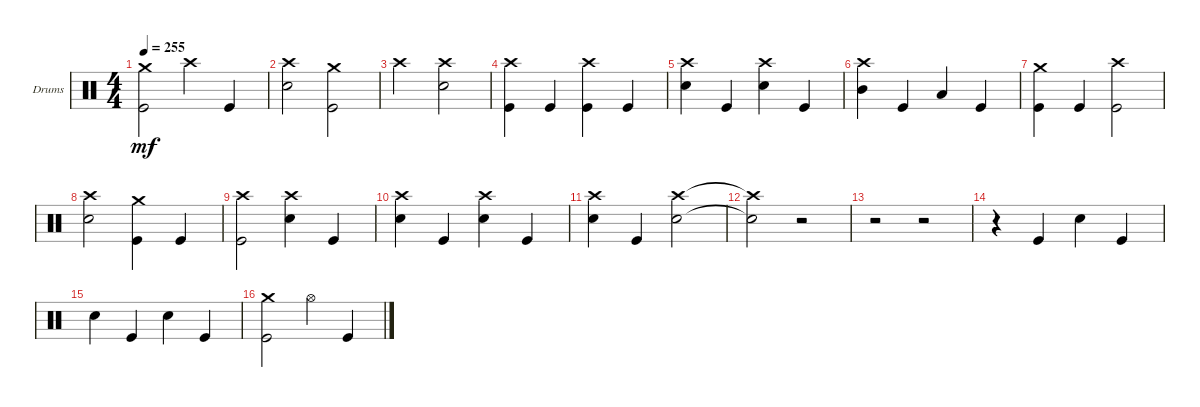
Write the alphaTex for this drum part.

\bracketExtendMode groupsimilarinstruments
\firstSystemTrackNameOrientation horizontal
\otherSystemsTrackNameOrientation horizontal
\track ("Drums" "Drums") {instrument percussion}
\staff {score}
\articulation defaults
\ts (4 4)
\tempo 255
\clef neutral
\ks c
("Kick (hit)" "Crash medium (hit)").2{dy mf} "Crash high (hit)".4 "Kick (hit)".4 |
("Snare (hit) 2" "Crash high (hit)").2 ("Kick (hit)" "Crash medium (hit)").2 |
"Crash high (hit)".2 ("Snare (hit) 2" "Crash high (hit)").2 |
("Kick (hit)" "Crash high (hit)").4 "Kick (hit)".4 ("Kick (hit)" "Crash high (hit)").4 "Kick (hit)".4 |
("Snare (hit) 2" "Crash high (hit)").4 "Kick (hit)".4 ("Snare (hit) 2" "Crash high (hit)").4 "Kick (hit)".4 |
("Mid Tom (hit)" "Crash high (hit)").4 "Kick (hit)".4 "Low Tom (hit)".4 "Kick (hit)".4 |
("Kick (hit)" "Crash medium (hit)").4 "Kick (hit)".4 ("Kick (hit)" "Crash high (hit)").2 |
("Snare (hit) 2" "Crash high (hit)").2 ("Kick (hit)" "Crash medium (hit)").4 "Kick (hit)".4 |
("Kick (hit)" "Crash high (hit)").2 ("Snare (hit) 2" "Crash high (hit)").4 "Kick (hit)".4 |
("Snare (hit) 2" "Crash high (hit)").4 "Kick (hit)".4 ("Snare (hit) 2" "Crash high (hit)").4 "Kick (hit)".4 |
("Snare (hit) 2" "Crash high (hit)").4 "Kick (hit)".4 ("Snare (hit) 2" "Crash high (hit)").2 |
("Snare (hit) 2"{t} "Crash high (hit)"{t}).2 r.2 |
r.2 r.2 |
r.4 "Kick (hit)".4 "Snare (hit) 2".4 "Kick (hit)".4 |
"Snare (hit) 2".4 "Kick (hit)".4 "Snare (hit) 2".4 "Kick (hit)".4 |
("Kick (hit)" "Crash medium (hit)").2 "Hi-Hat (open)".4 "Kick (hit)".4
